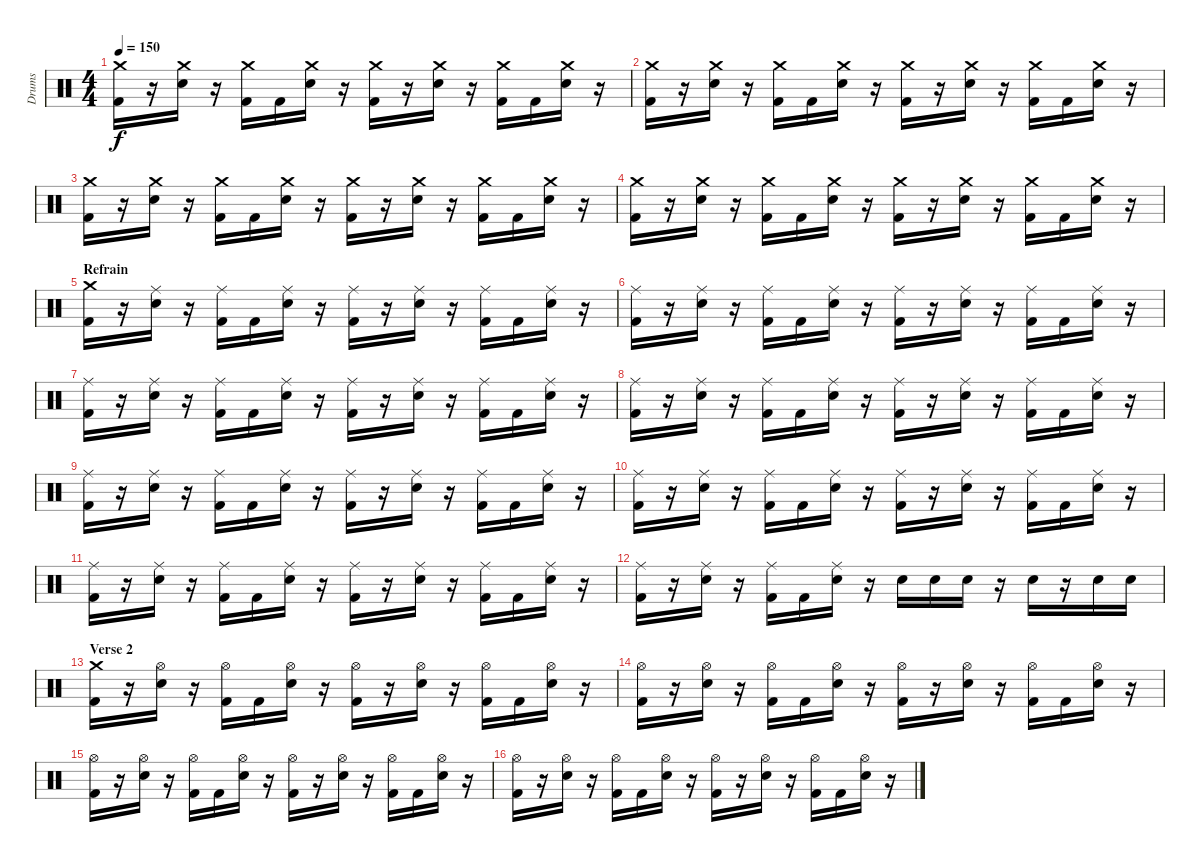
\track ("Drums" "Drums") {instrument percussion}
\staff {score}
\articulation defaults
\ts (4 4)
\tempo 150
\clef neutral
\ks c
("Crash medium (hit)" "Kick (hit) 2").16{dy f} r.16 ("Crash medium (hit)" "Electric Snare (hit)").16 r.16 ("Crash medium (hit)" "Kick (hit) 2").16 "Kick (hit) 2".16 ("Crash medium (hit)" "Electric Snare (hit)").16 r.16 ("Crash medium (hit)" "Kick (hit) 2").16 r.16 ("Crash medium (hit)" "Electric Snare (hit)").16 r.16 ("Crash medium (hit)" "Kick (hit) 2").16 "Kick (hit) 2".16 ("Crash medium (hit)" "Electric Snare (hit)").16 r.16 |
("Crash medium (hit)" "Kick (hit) 2").16 r.16 ("Crash medium (hit)" "Electric Snare (hit)").16 r.16 ("Crash medium (hit)" "Kick (hit) 2").16 "Kick (hit) 2".16 ("Crash medium (hit)" "Electric Snare (hit)").16 r.16 ("Crash medium (hit)" "Kick (hit) 2").16 r.16 ("Crash medium (hit)" "Electric Snare (hit)").16 r.16 ("Crash medium (hit)" "Kick (hit) 2").16 "Kick (hit) 2".16 ("Crash medium (hit)" "Electric Snare (hit)").16 r.16 |
("Crash medium (hit)" "Kick (hit) 2").16 r.16 ("Crash medium (hit)" "Electric Snare (hit)").16 r.16 ("Crash medium (hit)" "Kick (hit) 2").16 "Kick (hit) 2".16 ("Crash medium (hit)" "Electric Snare (hit)").16 r.16 ("Crash medium (hit)" "Kick (hit) 2").16 r.16 ("Crash medium (hit)" "Electric Snare (hit)").16 r.16 ("Crash medium (hit)" "Kick (hit) 2").16 "Kick (hit) 2".16 ("Crash medium (hit)" "Electric Snare (hit)").16 r.16 |
("Crash medium (hit)" "Kick (hit) 2").16 r.16 ("Crash medium (hit)" "Electric Snare (hit)").16 r.16 ("Crash medium (hit)" "Kick (hit) 2").16 "Kick (hit) 2".16 ("Crash medium (hit)" "Electric Snare (hit)").16 r.16 ("Crash medium (hit)" "Kick (hit) 2").16 r.16 ("Crash medium (hit)" "Electric Snare (hit)").16 r.16 ("Crash medium (hit)" "Kick (hit) 2").16 "Kick (hit) 2".16 ("Crash medium (hit)" "Electric Snare (hit)").16 r.16 |
\section ("" "Refrain")
("Crash medium (hit)" "Kick (hit) 2").16 r.16 ("Ride (middle)" "Electric Snare (hit)").16 r.16 ("Ride (middle)" "Kick (hit) 2").16 "Kick (hit) 2".16 ("Ride (middle)" "Electric Snare (hit)").16 r.16 ("Ride (middle)" "Kick (hit) 2").16 r.16 ("Ride (middle)" "Electric Snare (hit)").16 r.16 ("Ride (middle)" "Kick (hit) 2").16 "Kick (hit) 2".16 ("Ride (middle)" "Electric Snare (hit)").16 r.16 |
("Ride (middle)" "Kick (hit) 2").16 r.16 ("Ride (middle)" "Electric Snare (hit)").16 r.16 ("Ride (middle)" "Kick (hit) 2").16 "Kick (hit) 2".16 ("Ride (middle)" "Electric Snare (hit)").16 r.16 ("Ride (middle)" "Kick (hit) 2").16 r.16 ("Ride (middle)" "Electric Snare (hit)").16 r.16 ("Ride (middle)" "Kick (hit) 2").16 "Kick (hit) 2".16 ("Ride (middle)" "Electric Snare (hit)").16 r.16 |
("Ride (middle)" "Kick (hit) 2").16 r.16 ("Ride (middle)" "Electric Snare (hit)").16 r.16 ("Ride (middle)" "Kick (hit) 2").16 "Kick (hit) 2".16 ("Ride (middle)" "Electric Snare (hit)").16 r.16 ("Ride (middle)" "Kick (hit) 2").16 r.16 ("Ride (middle)" "Electric Snare (hit)").16 r.16 ("Ride (middle)" "Kick (hit) 2").16 "Kick (hit) 2".16 ("Ride (middle)" "Electric Snare (hit)").16 r.16 |
("Ride (middle)" "Kick (hit) 2").16 r.16 ("Ride (middle)" "Electric Snare (hit)").16 r.16 ("Ride (middle)" "Kick (hit) 2").16 "Kick (hit) 2".16 ("Ride (middle)" "Electric Snare (hit)").16 r.16 ("Ride (middle)" "Kick (hit) 2").16 r.16 ("Ride (middle)" "Electric Snare (hit)").16 r.16 ("Ride (middle)" "Kick (hit) 2").16 "Kick (hit) 2".16 ("Ride (middle)" "Electric Snare (hit)").16 r.16 |
("Ride (middle)" "Kick (hit) 2").16 r.16 ("Ride (middle)" "Electric Snare (hit)").16 r.16 ("Ride (middle)" "Kick (hit) 2").16 "Kick (hit) 2".16 ("Ride (middle)" "Electric Snare (hit)").16 r.16 ("Ride (middle)" "Kick (hit) 2").16 r.16 ("Ride (middle)" "Electric Snare (hit)").16 r.16 ("Ride (middle)" "Kick (hit) 2").16 "Kick (hit) 2".16 ("Ride (middle)" "Electric Snare (hit)").16 r.16 |
("Ride (middle)" "Kick (hit) 2").16 r.16 ("Ride (middle)" "Electric Snare (hit)").16 r.16 ("Ride (middle)" "Kick (hit) 2").16 "Kick (hit) 2".16 ("Ride (middle)" "Electric Snare (hit)").16 r.16 ("Ride (middle)" "Kick (hit) 2").16 r.16 ("Ride (middle)" "Electric Snare (hit)").16 r.16 ("Ride (middle)" "Kick (hit) 2").16 "Kick (hit) 2".16 ("Ride (middle)" "Electric Snare (hit)").16 r.16 |
("Ride (middle)" "Kick (hit) 2").16 r.16 ("Ride (middle)" "Electric Snare (hit)").16 r.16 ("Ride (middle)" "Kick (hit) 2").16 "Kick (hit) 2".16 ("Ride (middle)" "Electric Snare (hit)").16 r.16 ("Ride (middle)" "Kick (hit) 2").16 r.16 ("Ride (middle)" "Electric Snare (hit)").16 r.16 ("Ride (middle)" "Kick (hit) 2").16 "Kick (hit) 2".16 ("Ride (middle)" "Electric Snare (hit)").16 r.16 |
("Ride (middle)" "Kick (hit) 2").16 r.16 ("Ride (middle)" "Electric Snare (hit)").16 r.16 ("Ride (middle)" "Kick (hit) 2").16 "Kick (hit) 2".16 ("Ride (middle)" "Electric Snare (hit)").16 r.16 "Electric Snare (hit)".16 "Electric Snare (hit)".16 "Electric Snare (hit)".16 r.16 "Electric Snare (hit)".16 r.16 "Electric Snare (hit)".16 "Electric Snare (hit)".16 |
\section ("" "Verse 2")
("Crash medium (hit)" "Kick (hit) 2").16 r.16 ("Hi-Hat (open)" "Electric Snare (hit)").16 r.16 ("Hi-Hat (open)" "Kick (hit) 2").16 "Kick (hit) 2".16 ("Hi-Hat (open)" "Electric Snare (hit)").16 r.16 ("Hi-Hat (open)" "Kick (hit) 2").16 r.16 ("Hi-Hat (open)" "Electric Snare (hit)").16 r.16 ("Hi-Hat (open)" "Kick (hit) 2").16 "Kick (hit) 2".16 ("Hi-Hat (open)" "Electric Snare (hit)").16 r.16 |
("Hi-Hat (open)" "Kick (hit) 2").16 r.16 ("Hi-Hat (open)" "Electric Snare (hit)").16 r.16 ("Hi-Hat (open)" "Kick (hit) 2").16 "Kick (hit) 2".16 ("Hi-Hat (open)" "Electric Snare (hit)").16 r.16 ("Hi-Hat (open)" "Kick (hit) 2").16 r.16 ("Hi-Hat (open)" "Electric Snare (hit)").16 r.16 ("Hi-Hat (open)" "Kick (hit) 2").16 "Kick (hit) 2".16 ("Hi-Hat (open)" "Electric Snare (hit)").16 r.16 |
("Hi-Hat (open)" "Kick (hit) 2").16 r.16 ("Hi-Hat (open)" "Electric Snare (hit)").16 r.16 ("Hi-Hat (open)" "Kick (hit) 2").16 "Kick (hit) 2".16 ("Hi-Hat (open)" "Electric Snare (hit)").16 r.16 ("Hi-Hat (open)" "Kick (hit) 2").16 r.16 ("Hi-Hat (open)" "Electric Snare (hit)").16 r.16 ("Hi-Hat (open)" "Kick (hit) 2").16 "Kick (hit) 2".16 ("Hi-Hat (open)" "Electric Snare (hit)").16 r.16 |
("Hi-Hat (open)" "Kick (hit) 2").16 r.16 ("Hi-Hat (open)" "Electric Snare (hit)").16 r.16 ("Hi-Hat (open)" "Kick (hit) 2").16 "Kick (hit) 2".16 ("Hi-Hat (open)" "Electric Snare (hit)").16 r.16 ("Hi-Hat (open)" "Kick (hit) 2").16 r.16 ("Hi-Hat (open)" "Electric Snare (hit)").16 r.16 ("Hi-Hat (open)" "Kick (hit) 2").16 "Kick (hit) 2".16 ("Hi-Hat (open)" "Electric Snare (hit)").16 r.16
